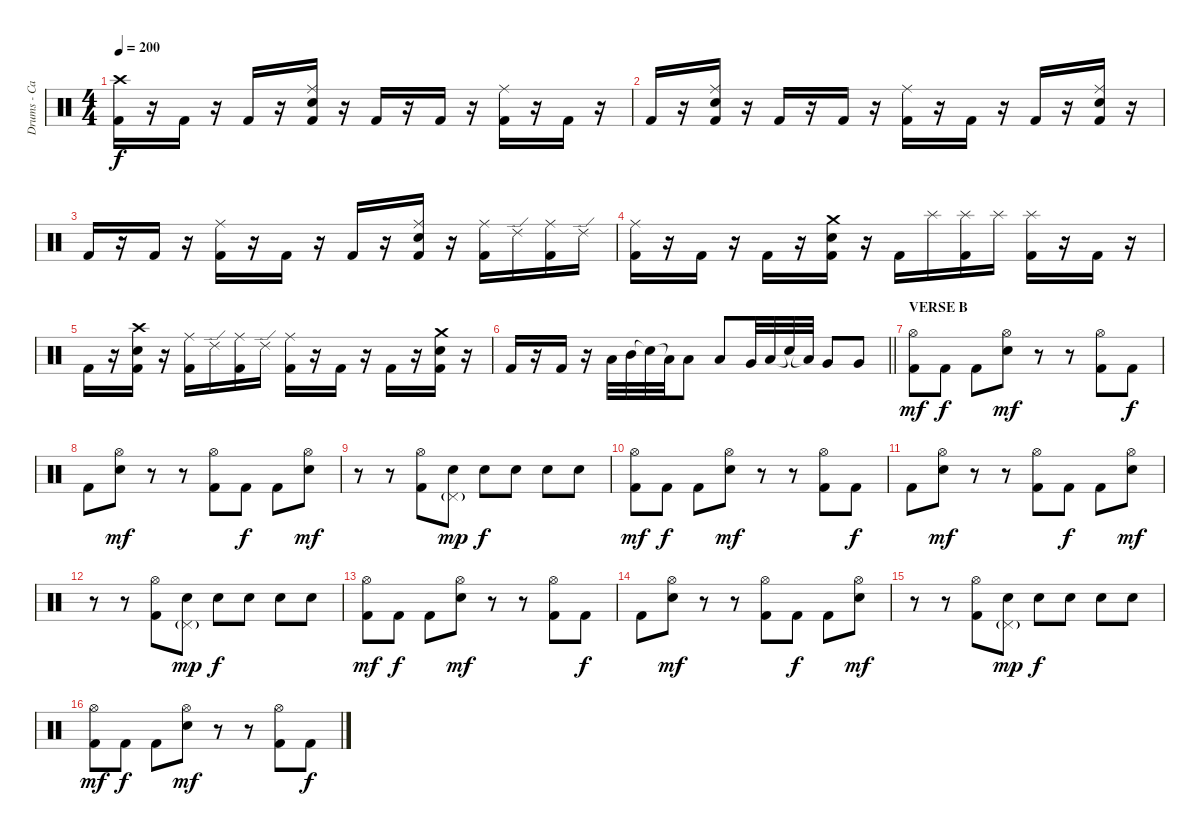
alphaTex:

\track ("Drums - Carlos Cruz" "Drums - Ca") {instrument percussion}
\staff {score}
\articulation defaults
\ts (4 4)
\tempo 200
\clef neutral
\ks c
("Crash high (hit)" "Kick (hit) 2").16{dy f} r.16 "Kick (hit) 2".16 r.16 "Kick (hit) 2".16 r.16 ("Ride (middle)" "Snare (hit) 2" "Kick (hit) 2").16 r.16 "Kick (hit) 2".16 r.16 "Kick (hit) 2".16 r.16 ("Ride (middle)" "Kick (hit) 2").16 r.16 "Kick (hit) 2".16 r.16 |
"Kick (hit) 2".16 r.16 ("Ride (middle)" "Snare (hit) 2" "Kick (hit) 2").16 r.16 "Kick (hit) 2".16 r.16 "Kick (hit) 2".16 r.16 ("Ride (middle)" "Kick (hit) 2").16 r.16 "Kick (hit) 2".16 r.16 "Kick (hit) 2".16 r.16 ("Ride (middle)" "Snare (hit) 2" "Kick (hit) 2").16 r.16 |
"Kick (hit) 2".16 r.16 "Kick (hit) 2".16 r.16 ("Ride (middle)" "Kick (hit) 2").16 r.16 "Kick (hit) 2".16 r.16 "Kick (hit) 2".16 r.16 ("Ride (middle)" "Snare (hit) 2" "Kick (hit) 2").16 r.16 ("Ride (middle)" "Kick (hit) 2").16 "Ride (edge) 2".16 ("Ride (middle)" "Kick (hit) 2").16 "Ride (edge) 2".16 |
("Ride (middle)" "Kick (hit) 2").16 r.16 "Kick (hit) 2".16 r.16 "Kick (hit) 2".16 r.16 ("Crash medium (hit)" "Snare (hit) 2" "Kick (hit) 2").16 r.16 "Kick (hit) 2".16 "Splash (hit)".16 ("Splash (hit)" "Kick (hit) 2").16 "Splash (hit)".16 ("Splash (hit)" "Kick (hit) 2").16 r.16 "Kick (hit) 2".16 r.16 |
"Kick (hit) 2".16 r.16 ("Crash high (hit)" "Snare (hit) 2" "Kick (hit) 2").16 r.16 ("Ride (middle)" "Kick (hit) 2").16 "Ride (edge) 2".16 ("Ride (middle)" "Kick (hit) 2").16 "Ride (edge) 2".16 ("Ride (middle)" "Kick (hit) 2").16 r.16 "Kick (hit) 2".16 r.16 "Kick (hit) 2".16 r.16 ("Crash medium (hit)" "Snare (hit) 2" "Kick (hit) 2").16 r.16 |
\barLineRight lightlight "Kick (hit) 2".16
r.16 "Kick (hit) 2".16 r.16 "Low Tom (hit)".32 "Mid Tom (hit)".32 "Snare (hit)"{t}.32 "Low Tom (hit)"{t}.32 "Low Tom (hit)".8 "Low Tom (hit)".8 "Very Low Tom (hit)".32 "Low Tom (hit)".32 "Snare (hit)"{t}.32 "Low Tom (hit)"{t}.32 "Very Low Tom (hit)".8 "Very Low Tom (hit)".8 |
\section ("" "VERSE B")
("Hi-Hat (open)" "Kick (hit) 2").8{dy mf} "Kick (hit) 2".8{dy f} "Kick (hit) 2".8 ("Hi-Hat (open)" "Snare (hit) 2").8{dy mf} r.8 r.8 ("Hi-Hat (open)" "Kick (hit) 2").8 "Kick (hit) 2".8{dy f} |
"Kick (hit) 2".8 ("Hi-Hat (open)" "Snare (hit) 2").8{dy mf} r.8 r.8 ("Hi-Hat (open)" "Kick (hit) 2").8 "Kick (hit) 2".8{dy f} "Kick (hit) 2".8 ("Hi-Hat (open)" "Snare (hit) 2").8{dy mf} |
r.8 r.8 ("Hi-Hat (open)" "Kick (hit) 2").8 ("Pedal Hi-Hat (hit)"{g} "Snare (hit) 2").8{dy mp} "Snare (hit) 2".8{dy f} "Snare (hit) 2".8 "Snare (hit) 2".8 "Snare (hit) 2".8 |
("Hi-Hat (open)" "Kick (hit) 2").8{dy mf} "Kick (hit) 2".8{dy f} "Kick (hit) 2".8 ("Hi-Hat (open)" "Snare (hit) 2").8{dy mf} r.8 r.8 ("Hi-Hat (open)" "Kick (hit) 2").8 "Kick (hit) 2".8{dy f} |
"Kick (hit) 2".8 ("Hi-Hat (open)" "Snare (hit) 2").8{dy mf} r.8 r.8 ("Hi-Hat (open)" "Kick (hit) 2").8 "Kick (hit) 2".8{dy f} "Kick (hit) 2".8 ("Hi-Hat (open)" "Snare (hit) 2").8{dy mf} |
r.8 r.8 ("Hi-Hat (open)" "Kick (hit) 2").8 ("Pedal Hi-Hat (hit)"{g} "Snare (hit) 2").8{dy mp} "Snare (hit) 2".8{dy f} "Snare (hit) 2".8 "Snare (hit) 2".8 "Snare (hit) 2".8 |
("Hi-Hat (open)" "Kick (hit) 2").8{dy mf} "Kick (hit) 2".8{dy f} "Kick (hit) 2".8 ("Hi-Hat (open)" "Snare (hit) 2").8{dy mf} r.8 r.8 ("Hi-Hat (open)" "Kick (hit) 2").8 "Kick (hit) 2".8{dy f} |
"Kick (hit) 2".8 ("Hi-Hat (open)" "Snare (hit) 2").8{dy mf} r.8 r.8 ("Hi-Hat (open)" "Kick (hit) 2").8 "Kick (hit) 2".8{dy f} "Kick (hit) 2".8 ("Hi-Hat (open)" "Snare (hit) 2").8{dy mf} |
r.8 r.8 ("Hi-Hat (open)" "Kick (hit) 2").8 ("Pedal Hi-Hat (hit)"{g} "Snare (hit) 2").8{dy mp} "Snare (hit) 2".8{dy f} "Snare (hit) 2".8 "Snare (hit) 2".8 "Snare (hit) 2".8 |
("Hi-Hat (open)" "Kick (hit) 2").8{dy mf} "Kick (hit) 2".8{dy f} "Kick (hit) 2".8 ("Hi-Hat (open)" "Snare (hit) 2").8{dy mf} r.8 r.8 ("Hi-Hat (open)" "Kick (hit) 2").8 "Kick (hit) 2".8{dy f}
